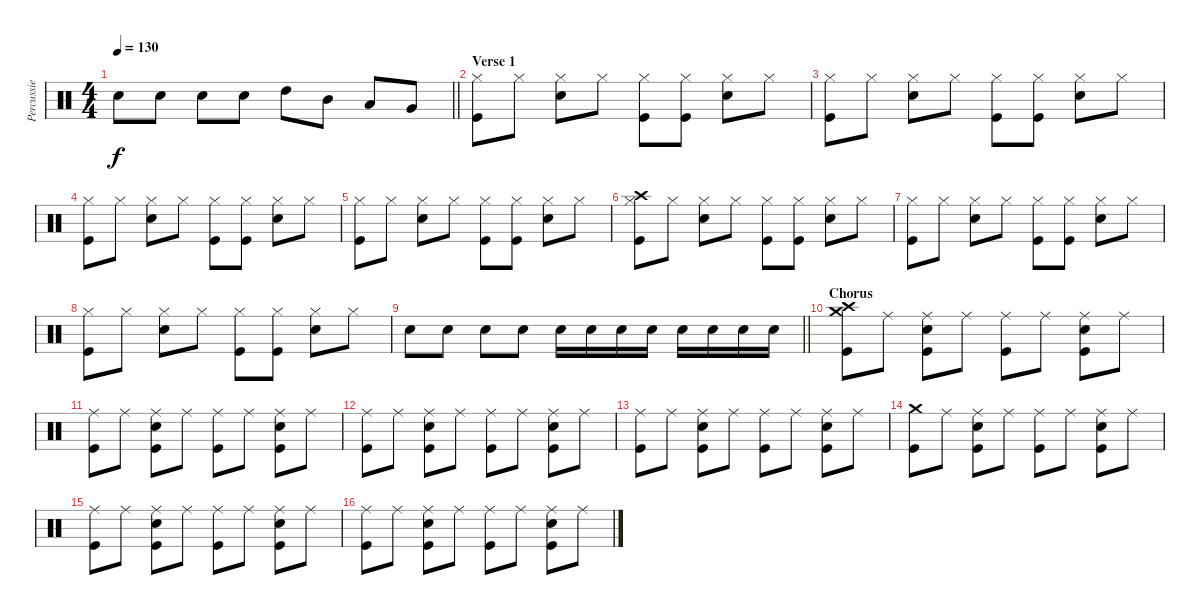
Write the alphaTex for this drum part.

\track ("Percussie" "Percussie") {instrument percussion}
\staff {score}
\articulation defaults
\ts (4 4)
\tempo 130
\clef neutral
\barLineRight lightlight
\ks c "Snare (hit) 2".8{dy f} "Snare (hit) 2".8 "Snare (hit) 2".8 "Snare (hit) 2".8 "High Tom (hit)".8 "Mid Tom (hit)".8 "Low Tom (hit)".8 "Very Low Tom (hit)".8
|
\section ("" "Verse 1")
("Hi-Hat (closed)" "Kick (hit)").8 "Hi-Hat (closed)".8 ("Hi-Hat (closed)" "Snare (hit) 2").8 "Hi-Hat (closed)".8 ("Hi-Hat (closed)" "Kick (hit)").8 ("Hi-Hat (closed)" "Kick (hit)").8 ("Hi-Hat (closed)" "Snare (hit) 2").8 "Hi-Hat (closed)".8 |
("Hi-Hat (closed)" "Kick (hit)").8 "Hi-Hat (closed)".8 ("Hi-Hat (closed)" "Snare (hit) 2").8 "Hi-Hat (closed)".8 ("Hi-Hat (closed)" "Kick (hit)").8 ("Hi-Hat (closed)" "Kick (hit)").8 ("Hi-Hat (closed)" "Snare (hit) 2").8 "Hi-Hat (closed)".8 |
("Hi-Hat (closed)" "Kick (hit)").8 "Hi-Hat (closed)".8 ("Hi-Hat (closed)" "Snare (hit) 2").8 "Hi-Hat (closed)".8 ("Hi-Hat (closed)" "Kick (hit)").8 ("Hi-Hat (closed)" "Kick (hit)").8 ("Hi-Hat (closed)" "Snare (hit) 2").8 "Hi-Hat (closed)".8 |
("Hi-Hat (closed)" "Kick (hit)").8 "Hi-Hat (closed)".8 ("Hi-Hat (closed)" "Snare (hit) 2").8 "Hi-Hat (closed)".8 ("Hi-Hat (closed)" "Kick (hit)").8 ("Hi-Hat (closed)" "Kick (hit)").8 ("Hi-Hat (closed)" "Snare (hit) 2").8 "Hi-Hat (closed)".8 |
("Crash high (hit)" "Hi-Hat (closed)" "Kick (hit)").8 "Hi-Hat (closed)".8 ("Hi-Hat (closed)" "Snare (hit) 2").8 "Hi-Hat (closed)".8 ("Hi-Hat (closed)" "Kick (hit)").8 ("Hi-Hat (closed)" "Kick (hit)").8 ("Hi-Hat (closed)" "Snare (hit) 2").8 "Hi-Hat (closed)".8 |
("Hi-Hat (closed)" "Kick (hit)").8 "Hi-Hat (closed)".8 ("Hi-Hat (closed)" "Snare (hit) 2").8 "Hi-Hat (closed)".8 ("Hi-Hat (closed)" "Kick (hit)").8 ("Hi-Hat (closed)" "Kick (hit)").8 ("Hi-Hat (closed)" "Snare (hit) 2").8 "Hi-Hat (closed)".8 |
("Hi-Hat (closed)" "Kick (hit)").8 "Hi-Hat (closed)".8 ("Hi-Hat (closed)" "Snare (hit) 2").8 "Hi-Hat (closed)".8 ("Hi-Hat (closed)" "Kick (hit)").8 ("Hi-Hat (closed)" "Kick (hit)").8 ("Hi-Hat (closed)" "Snare (hit) 2").8 "Hi-Hat (closed)".8 |
\barLineRight lightlight "Snare (hit) 2".8 "Snare (hit) 2".8 "Snare (hit) 2".8 "Snare (hit) 2".8 "Snare (hit) 2".16 "Snare (hit) 2".16 "Snare (hit) 2".16 "Snare (hit) 2".16 "Snare (hit) 2".16 "Snare (hit) 2".16 "Snare (hit) 2".16 "Snare (hit) 2".16
|
\section ("" "Chorus")
("Crash high (hit)" "Crash medium (hit)" "Kick (hit)").8 "Ride (middle)".8 ("Ride (middle)" "Snare (hit) 2" "Kick (hit)").8 "Ride (middle)".8 ("Ride (middle)" "Kick (hit)").8 "Ride (middle)".8 ("Ride (middle)" "Snare (hit) 2" "Kick (hit)").8 "Ride (middle)".8 |
("Ride (middle)" "Kick (hit)").8 "Ride (middle)".8 ("Ride (middle)" "Snare (hit) 2" "Kick (hit)").8 "Ride (middle)".8 ("Ride (middle)" "Kick (hit)").8 "Ride (middle)".8 ("Ride (middle)" "Snare (hit) 2" "Kick (hit)").8 "Ride (middle)".8 |
("Ride (middle)" "Kick (hit)").8 "Ride (middle)".8 ("Ride (middle)" "Snare (hit) 2" "Kick (hit)").8 "Ride (middle)".8 ("Ride (middle)" "Kick (hit)").8 "Ride (middle)".8 ("Ride (middle)" "Snare (hit) 2" "Kick (hit)").8 "Ride (middle)".8 |
("Ride (middle)" "Kick (hit)").8 "Ride (middle)".8 ("Ride (middle)" "Snare (hit) 2" "Kick (hit)").8 "Ride (middle)".8 ("Ride (middle)" "Kick (hit)").8 "Ride (middle)".8 ("Ride (middle)" "Snare (hit) 2" "Kick (hit)").8 "Ride (middle)".8 |
("Crash medium (hit)" "Kick (hit)").8 "Ride (middle)".8 ("Ride (middle)" "Snare (hit) 2" "Kick (hit)").8 "Ride (middle)".8 ("Ride (middle)" "Kick (hit)").8 "Ride (middle)".8 ("Ride (middle)" "Snare (hit) 2" "Kick (hit)").8 "Ride (middle)".8 |
("Ride (middle)" "Kick (hit)").8 "Ride (middle)".8 ("Ride (middle)" "Snare (hit) 2" "Kick (hit)").8 "Ride (middle)".8 ("Ride (middle)" "Kick (hit)").8 "Ride (middle)".8 ("Ride (middle)" "Snare (hit) 2" "Kick (hit)").8 "Ride (middle)".8 |
("Ride (middle)" "Kick (hit)").8 "Ride (middle)".8 ("Ride (middle)" "Snare (hit) 2" "Kick (hit)").8 "Ride (middle)".8 ("Ride (middle)" "Kick (hit)").8 "Ride (middle)".8 ("Ride (middle)" "Snare (hit) 2" "Kick (hit)").8 "Ride (middle)".8
